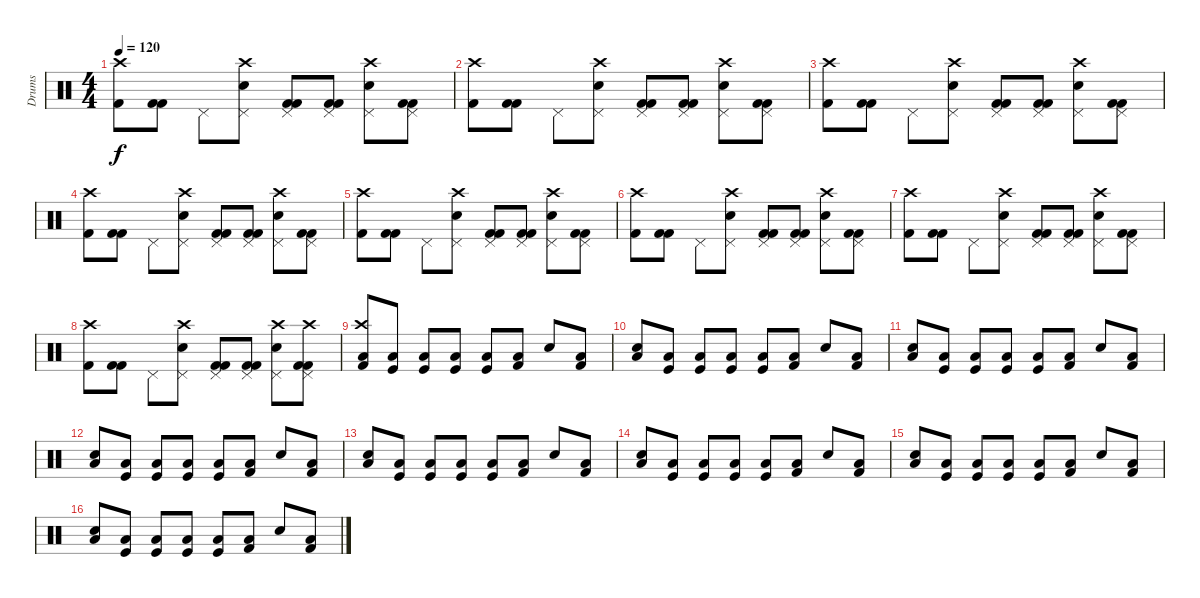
\track ("Drums" "Drums") {instrument percussion}
\staff {score}
\articulation defaults
\ts (4 4)
\tempo 120
\clef neutral
\ks c
("Kick (hit) 2" "Crash high (hit)").8{dy f} ("Kick (hit) 2" "Kick (hit) 2").8 "Pedal Hi-Hat (hit)".8 ("Crash high (hit)" "Snare (hit) 2" "Pedal Hi-Hat (hit)").8 ("Kick (hit) 2" "Kick (hit) 2" "Pedal Hi-Hat (hit)").8 ("Kick (hit) 2" "Kick (hit) 2" "Pedal Hi-Hat (hit)").8 ("Crash high (hit)" "Snare (hit) 2" "Pedal Hi-Hat (hit)").8 ("Kick (hit) 2" "Kick (hit) 2" "Pedal Hi-Hat (hit)").8 |
("Kick (hit) 2" "Crash high (hit)").8 ("Kick (hit) 2" "Kick (hit) 2").8 "Pedal Hi-Hat (hit)".8 ("Crash high (hit)" "Snare (hit) 2" "Pedal Hi-Hat (hit)").8 ("Kick (hit) 2" "Kick (hit) 2" "Pedal Hi-Hat (hit)").8 ("Kick (hit) 2" "Kick (hit) 2" "Pedal Hi-Hat (hit)").8 ("Crash high (hit)" "Snare (hit) 2" "Pedal Hi-Hat (hit)").8 ("Kick (hit) 2" "Kick (hit) 2" "Pedal Hi-Hat (hit)").8 |
("Kick (hit) 2" "Crash high (hit)").8 ("Kick (hit) 2" "Kick (hit) 2").8 "Pedal Hi-Hat (hit)".8 ("Crash high (hit)" "Snare (hit) 2" "Pedal Hi-Hat (hit)").8 ("Kick (hit) 2" "Kick (hit) 2" "Pedal Hi-Hat (hit)").8 ("Kick (hit) 2" "Kick (hit) 2" "Pedal Hi-Hat (hit)").8 ("Crash high (hit)" "Snare (hit) 2" "Pedal Hi-Hat (hit)").8 ("Kick (hit) 2" "Kick (hit) 2" "Pedal Hi-Hat (hit)").8 |
("Kick (hit) 2" "Crash high (hit)").8 ("Kick (hit) 2" "Kick (hit) 2").8 "Pedal Hi-Hat (hit)".8 ("Crash high (hit)" "Snare (hit) 2" "Pedal Hi-Hat (hit)").8 ("Kick (hit) 2" "Kick (hit) 2" "Pedal Hi-Hat (hit)").8 ("Kick (hit) 2" "Kick (hit) 2" "Pedal Hi-Hat (hit)").8 ("Crash high (hit)" "Snare (hit) 2" "Pedal Hi-Hat (hit)").8 ("Kick (hit) 2" "Kick (hit) 2" "Pedal Hi-Hat (hit)").8 |
("Kick (hit) 2" "Crash high (hit)").8 ("Kick (hit) 2" "Kick (hit) 2").8 "Pedal Hi-Hat (hit)".8 ("Crash high (hit)" "Snare (hit) 2" "Pedal Hi-Hat (hit)").8 ("Kick (hit) 2" "Kick (hit) 2" "Pedal Hi-Hat (hit)").8 ("Kick (hit) 2" "Kick (hit) 2" "Pedal Hi-Hat (hit)").8 ("Crash high (hit)" "Snare (hit) 2" "Pedal Hi-Hat (hit)").8 ("Kick (hit) 2" "Kick (hit) 2" "Pedal Hi-Hat (hit)").8 |
("Kick (hit) 2" "Crash high (hit)").8 ("Kick (hit) 2" "Kick (hit) 2").8 "Pedal Hi-Hat (hit)".8 ("Crash high (hit)" "Snare (hit) 2" "Pedal Hi-Hat (hit)").8 ("Kick (hit) 2" "Kick (hit) 2" "Pedal Hi-Hat (hit)").8 ("Kick (hit) 2" "Kick (hit) 2" "Pedal Hi-Hat (hit)").8 ("Crash high (hit)" "Snare (hit) 2" "Pedal Hi-Hat (hit)").8 ("Kick (hit) 2" "Kick (hit) 2" "Pedal Hi-Hat (hit)").8 |
("Kick (hit) 2" "Crash high (hit)").8 ("Kick (hit) 2" "Kick (hit) 2").8 "Pedal Hi-Hat (hit)".8 ("Crash high (hit)" "Snare (hit) 2" "Pedal Hi-Hat (hit)").8 ("Kick (hit) 2" "Kick (hit) 2" "Pedal Hi-Hat (hit)").8 ("Kick (hit) 2" "Kick (hit) 2" "Pedal Hi-Hat (hit)").8 ("Crash high (hit)" "Snare (hit) 2" "Pedal Hi-Hat (hit)").8 ("Kick (hit) 2" "Kick (hit) 2" "Pedal Hi-Hat (hit)").8 |
("Kick (hit) 2" "Crash high (hit)").8 ("Kick (hit) 2" "Kick (hit) 2").8 "Pedal Hi-Hat (hit)".8 ("Crash high (hit)" "Snare (hit) 2" "Pedal Hi-Hat (hit)").8 ("Kick (hit) 2" "Kick (hit) 2" "Pedal Hi-Hat (hit)").8 ("Kick (hit) 2" "Kick (hit) 2" "Pedal Hi-Hat (hit)").8 ("Crash high (hit)" "Snare (hit) 2" "Pedal Hi-Hat (hit)").8 ("Kick (hit) 2" "Kick (hit) 2" "Crash high (hit)" "Pedal Hi-Hat (hit)").8 |
("Low Tom (hit)" "Kick (hit) 2" "Crash high (hit)").8 ("Low Tom (hit)" "Kick (hit)").8 ("Low Tom (hit)" "Kick (hit)").8 ("Low Tom (hit)" "Kick (hit)").8 ("Low Tom (hit)" "Kick (hit)").8 ("Low Tom (hit)" "Kick (hit) 2").8 "Snare (hit) 2".8 ("Low Tom (hit)" "Kick (hit) 2").8 |
("Low Tom (hit)" "Snare (hit) 2").8 ("Low Tom (hit)" "Kick (hit)").8 ("Low Tom (hit)" "Kick (hit)").8 ("Low Tom (hit)" "Kick (hit)").8 ("Low Tom (hit)" "Kick (hit)").8 ("Low Tom (hit)" "Kick (hit) 2").8 "Snare (hit) 2".8 ("Low Tom (hit)" "Kick (hit) 2").8 |
("Low Tom (hit)" "Snare (hit) 2").8 ("Low Tom (hit)" "Kick (hit)").8 ("Low Tom (hit)" "Kick (hit)").8 ("Low Tom (hit)" "Kick (hit)").8 ("Low Tom (hit)" "Kick (hit)").8 ("Low Tom (hit)" "Kick (hit) 2").8 "Snare (hit) 2".8 ("Low Tom (hit)" "Kick (hit) 2").8 |
("Low Tom (hit)" "Snare (hit) 2").8 ("Low Tom (hit)" "Kick (hit)").8 ("Low Tom (hit)" "Kick (hit)").8 ("Low Tom (hit)" "Kick (hit)").8 ("Low Tom (hit)" "Kick (hit)").8 ("Low Tom (hit)" "Kick (hit) 2").8 "Snare (hit) 2".8 ("Low Tom (hit)" "Kick (hit) 2").8 |
("Low Tom (hit)" "Snare (hit) 2").8 ("Low Tom (hit)" "Kick (hit)").8 ("Low Tom (hit)" "Kick (hit)").8 ("Low Tom (hit)" "Kick (hit)").8 ("Low Tom (hit)" "Kick (hit)").8 ("Low Tom (hit)" "Kick (hit) 2").8 "Snare (hit) 2".8 ("Low Tom (hit)" "Kick (hit) 2").8 |
("Low Tom (hit)" "Snare (hit) 2").8 ("Low Tom (hit)" "Kick (hit)").8 ("Low Tom (hit)" "Kick (hit)").8 ("Low Tom (hit)" "Kick (hit)").8 ("Low Tom (hit)" "Kick (hit)").8 ("Low Tom (hit)" "Kick (hit) 2").8 "Snare (hit) 2".8 ("Low Tom (hit)" "Kick (hit) 2").8 |
("Low Tom (hit)" "Snare (hit) 2").8 ("Low Tom (hit)" "Kick (hit)").8 ("Low Tom (hit)" "Kick (hit)").8 ("Low Tom (hit)" "Kick (hit)").8 ("Low Tom (hit)" "Kick (hit)").8 ("Low Tom (hit)" "Kick (hit) 2").8 "Snare (hit) 2".8 ("Low Tom (hit)" "Kick (hit) 2").8 |
("Low Tom (hit)" "Snare (hit) 2").8 ("Low Tom (hit)" "Kick (hit)").8 ("Low Tom (hit)" "Kick (hit)").8 ("Low Tom (hit)" "Kick (hit)").8 ("Low Tom (hit)" "Kick (hit)").8 ("Low Tom (hit)" "Kick (hit) 2").8 "Snare (hit) 2".8 ("Low Tom (hit)" "Kick (hit) 2").8
